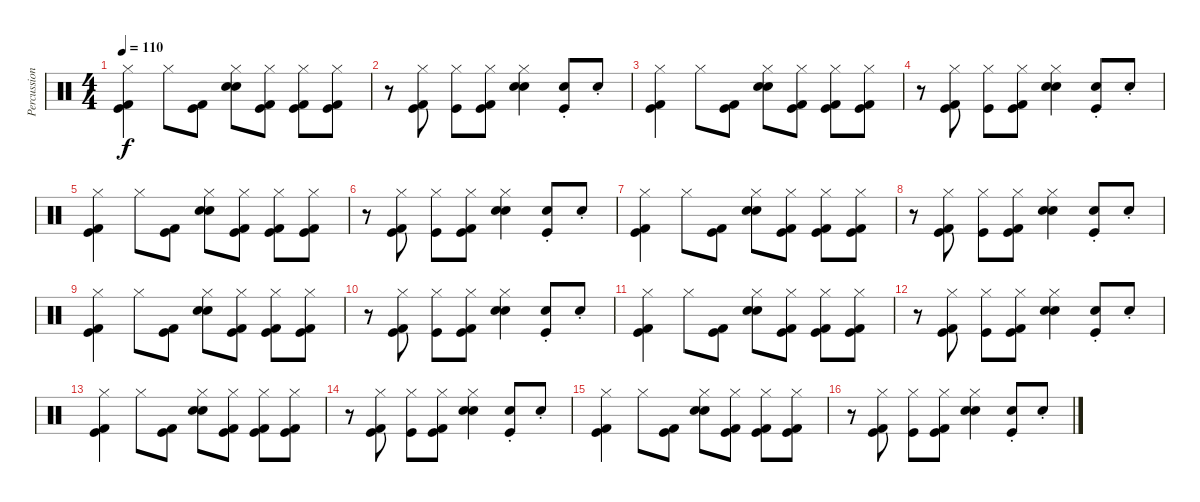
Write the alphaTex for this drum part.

\track ("Percussions" "Percussion") {instrument percussion}
\staff {score}
\articulation defaults
\ts (4 4)
\tempo 110
\clef neutral
\ks c
("Kick (hit) 2" "Kick (hit)" "Hi-Hat (closed)").4{dy f} "Hi-Hat (closed)".8 ("Kick (hit) 2" "Kick (hit)").8 ("Snare (hit) 2" "Hi-Hat (closed)" "Electric Snare (hit)").8 ("Kick (hit) 2" "Kick (hit)" "Hi-Hat (closed)").8 ("Kick (hit) 2" "Kick (hit)" "Hi-Hat (closed)").8 ("Kick (hit) 2" "Kick (hit)" "Hi-Hat (closed)").8 |
r.8 ("Kick (hit) 2" "Kick (hit)" "Hi-Hat (closed)").8 ("Kick (hit)" "Hi-Hat (closed)").8 ("Kick (hit) 2" "Kick (hit)" "Hi-Hat (closed)").8 ("Snare (hit) 2" "Hi-Hat (closed)" "Electric Snare (hit)").4 ("Kick (hit)" "Hand Clap (hit)"{st}).8 "Hand Clap (hit)"{st}.8 |
("Kick (hit) 2" "Kick (hit)" "Hi-Hat (closed)").4 "Hi-Hat (closed)".8 ("Kick (hit) 2" "Kick (hit)").8 ("Snare (hit) 2" "Hi-Hat (closed)" "Electric Snare (hit)").8 ("Kick (hit) 2" "Kick (hit)" "Hi-Hat (closed)").8 ("Kick (hit) 2" "Kick (hit)" "Hi-Hat (closed)").8 ("Kick (hit) 2" "Kick (hit)" "Hi-Hat (closed)").8 |
r.8 ("Kick (hit) 2" "Kick (hit)" "Hi-Hat (closed)").8 ("Kick (hit)" "Hi-Hat (closed)").8 ("Kick (hit) 2" "Kick (hit)" "Hi-Hat (closed)").8 ("Snare (hit) 2" "Hi-Hat (closed)" "Electric Snare (hit)").4 ("Kick (hit)" "Hand Clap (hit)"{st}).8 "Hand Clap (hit)"{st}.8 |
("Kick (hit) 2" "Kick (hit)" "Hi-Hat (closed)").4 "Hi-Hat (closed)".8 ("Kick (hit) 2" "Kick (hit)").8 ("Snare (hit) 2" "Hi-Hat (closed)" "Electric Snare (hit)").8 ("Kick (hit) 2" "Kick (hit)" "Hi-Hat (closed)").8 ("Kick (hit) 2" "Kick (hit)" "Hi-Hat (closed)").8 ("Kick (hit) 2" "Kick (hit)" "Hi-Hat (closed)").8 |
r.8 ("Kick (hit) 2" "Kick (hit)" "Hi-Hat (closed)").8 ("Kick (hit)" "Hi-Hat (closed)").8 ("Kick (hit) 2" "Kick (hit)" "Hi-Hat (closed)").8 ("Snare (hit) 2" "Hi-Hat (closed)" "Electric Snare (hit)").4 ("Kick (hit)" "Hand Clap (hit)"{st}).8 "Hand Clap (hit)"{st}.8 |
("Kick (hit) 2" "Kick (hit)" "Hi-Hat (closed)").4 "Hi-Hat (closed)".8 ("Kick (hit) 2" "Kick (hit)").8 ("Snare (hit) 2" "Hi-Hat (closed)" "Electric Snare (hit)").8 ("Kick (hit) 2" "Kick (hit)" "Hi-Hat (closed)").8 ("Kick (hit) 2" "Kick (hit)" "Hi-Hat (closed)").8 ("Kick (hit) 2" "Kick (hit)" "Hi-Hat (closed)").8 |
r.8 ("Kick (hit) 2" "Kick (hit)" "Hi-Hat (closed)").8 ("Kick (hit)" "Hi-Hat (closed)").8 ("Kick (hit) 2" "Kick (hit)" "Hi-Hat (closed)").8 ("Snare (hit) 2" "Hi-Hat (closed)" "Electric Snare (hit)").4 ("Kick (hit)" "Hand Clap (hit)"{st}).8 "Hand Clap (hit)"{st}.8 |
("Kick (hit) 2" "Kick (hit)" "Hi-Hat (closed)").4 "Hi-Hat (closed)".8 ("Kick (hit) 2" "Kick (hit)").8 ("Snare (hit) 2" "Hi-Hat (closed)" "Electric Snare (hit)").8 ("Kick (hit) 2" "Kick (hit)" "Hi-Hat (closed)").8 ("Kick (hit) 2" "Kick (hit)" "Hi-Hat (closed)").8 ("Kick (hit) 2" "Kick (hit)" "Hi-Hat (closed)").8 |
r.8 ("Kick (hit) 2" "Kick (hit)" "Hi-Hat (closed)").8 ("Kick (hit)" "Hi-Hat (closed)").8 ("Kick (hit) 2" "Kick (hit)" "Hi-Hat (closed)").8 ("Snare (hit) 2" "Hi-Hat (closed)" "Electric Snare (hit)").4 ("Kick (hit)" "Hand Clap (hit)"{st}).8 "Hand Clap (hit)"{st}.8 |
("Kick (hit) 2" "Kick (hit)" "Hi-Hat (closed)").4 "Hi-Hat (closed)".8 ("Kick (hit) 2" "Kick (hit)").8 ("Snare (hit) 2" "Hi-Hat (closed)" "Electric Snare (hit)").8 ("Kick (hit) 2" "Kick (hit)" "Hi-Hat (closed)").8 ("Kick (hit) 2" "Kick (hit)" "Hi-Hat (closed)").8 ("Kick (hit) 2" "Kick (hit)" "Hi-Hat (closed)").8 |
r.8 ("Kick (hit) 2" "Kick (hit)" "Hi-Hat (closed)").8 ("Kick (hit)" "Hi-Hat (closed)").8 ("Kick (hit) 2" "Kick (hit)" "Hi-Hat (closed)").8 ("Snare (hit) 2" "Hi-Hat (closed)" "Electric Snare (hit)").4 ("Kick (hit)" "Hand Clap (hit)"{st}).8 "Hand Clap (hit)"{st}.8 |
("Kick (hit) 2" "Kick (hit)" "Hi-Hat (closed)").4 "Hi-Hat (closed)".8 ("Kick (hit) 2" "Kick (hit)").8 ("Snare (hit) 2" "Hi-Hat (closed)" "Electric Snare (hit)").8 ("Kick (hit) 2" "Kick (hit)" "Hi-Hat (closed)").8 ("Kick (hit) 2" "Kick (hit)" "Hi-Hat (closed)").8 ("Kick (hit) 2" "Kick (hit)" "Hi-Hat (closed)").8 |
r.8 ("Kick (hit) 2" "Kick (hit)" "Hi-Hat (closed)").8 ("Kick (hit)" "Hi-Hat (closed)").8 ("Kick (hit) 2" "Kick (hit)" "Hi-Hat (closed)").8 ("Snare (hit) 2" "Hi-Hat (closed)" "Electric Snare (hit)").4 ("Kick (hit)" "Hand Clap (hit)"{st}).8 "Hand Clap (hit)"{st}.8 |
("Kick (hit) 2" "Kick (hit)" "Hi-Hat (closed)").4 "Hi-Hat (closed)".8 ("Kick (hit) 2" "Kick (hit)").8 ("Snare (hit) 2" "Hi-Hat (closed)" "Electric Snare (hit)").8 ("Kick (hit) 2" "Kick (hit)" "Hi-Hat (closed)").8 ("Kick (hit) 2" "Kick (hit)" "Hi-Hat (closed)").8 ("Kick (hit) 2" "Kick (hit)" "Hi-Hat (closed)").8 |
r.8 ("Kick (hit) 2" "Kick (hit)" "Hi-Hat (closed)").8 ("Kick (hit)" "Hi-Hat (closed)").8 ("Kick (hit) 2" "Kick (hit)" "Hi-Hat (closed)").8 ("Snare (hit) 2" "Hi-Hat (closed)" "Electric Snare (hit)").4 ("Kick (hit)" "Hand Clap (hit)"{st}).8 "Hand Clap (hit)"{st}.8
